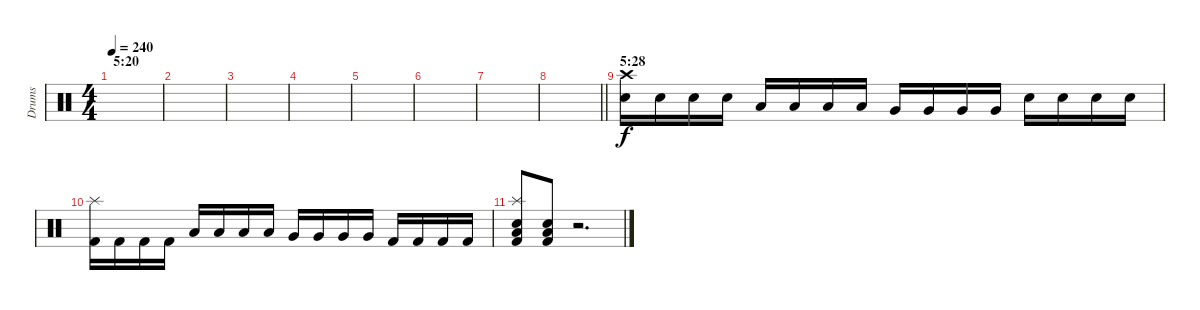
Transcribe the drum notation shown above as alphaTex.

\track ("Drums" "Drums") {instrument percussion}
\staff {score}
\articulation defaults
\ts (4 4)
\section ("" "5:20")
\tempo 240
\clef neutral
\ks c
|
|
|
|
|
|
|
\barLineRight lightlight
|
\section ("" "5:28")
("Crash high (hit)" "Electric Snare (hit)").16{volume 16} "Electric Snare (hit)".16 "Electric Snare (hit)".16 "Electric Snare (hit)".16 "Low Tom (hit)".16 "Low Tom (hit)".16 "Low Tom (hit)".16 "Low Tom (hit)".16 "Very Low Tom (hit)".16 "Very Low Tom (hit)".16 "Very Low Tom (hit)".16 "Very Low Tom (hit)".16 "Electric Snare (hit)".16 "Electric Snare (hit)".16 "Electric Snare (hit)".16 "Electric Snare (hit)".16 |
("Splash (hit)" "Kick (hit) 2").16 "Kick (hit) 2".16 "Kick (hit) 2".16 "Kick (hit) 2".16 "Low Tom (hit)".16 "Low Tom (hit)".16 "Low Tom (hit)".16 "Low Tom (hit)".16 "Very Low Tom (hit)".16 "Very Low Tom (hit)".16 "Very Low Tom (hit)".16 "Very Low Tom (hit)".16 "Kick (hit) 2".16 "Kick (hit) 2".16 "Kick (hit) 2".16 "Kick (hit) 2".16 |
("Splash (hit)" "Low Tom (hit)" "Electric Snare (hit)" "Kick (hit) 2").8 ("Low Tom (hit)" "Electric Snare (hit)" "Kick (hit) 2").8 r.2{d}
